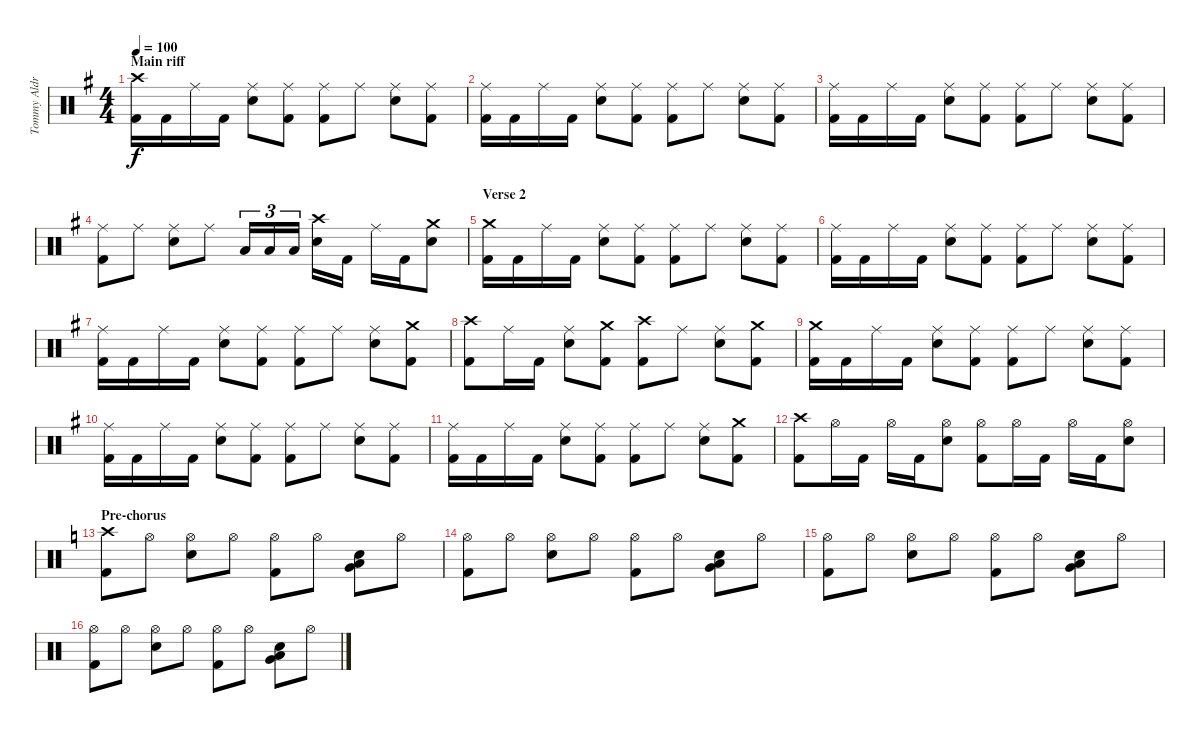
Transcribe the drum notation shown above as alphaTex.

\track ("Tommy Aldridge" "Tommy Aldr") {instrument percussion}
\staff {score}
\articulation defaults
\ts (4 4)
\section ("" "Main riff")
\tempo 100
\clef neutral
\ks eminor
("Crash high (hit)" "Kick (hit) 2").16{dy f} "Kick (hit) 2".16 "Ride (middle)".16 "Kick (hit) 2".16 ("Ride (middle)" "Electric Snare (hit)").8 ("Ride (middle)" "Kick (hit) 2").8 ("Ride (middle)" "Kick (hit) 2").8 "Ride (middle)".8 ("Ride (middle)" "Electric Snare (hit)").8 ("Ride (middle)" "Kick (hit) 2").8 |
("Ride (middle)" "Kick (hit) 2").16 "Kick (hit) 2".16 "Ride (middle)".16 "Kick (hit) 2".16 ("Ride (middle)" "Electric Snare (hit)").8 ("Ride (middle)" "Kick (hit) 2").8 ("Ride (middle)" "Kick (hit) 2").8 "Ride (middle)".8 ("Ride (middle)" "Electric Snare (hit)").8 ("Ride (middle)" "Kick (hit) 2").8 |
("Ride (middle)" "Kick (hit) 2").16 "Kick (hit) 2".16 "Ride (middle)".16 "Kick (hit) 2".16 ("Ride (middle)" "Electric Snare (hit)").8 ("Ride (middle)" "Kick (hit) 2").8 ("Ride (middle)" "Kick (hit) 2").8 "Ride (middle)".8 ("Ride (middle)" "Electric Snare (hit)").8 ("Ride (middle)" "Kick (hit) 2").8 |
("Ride (middle)" "Kick (hit) 2").8 "Ride (middle)".8 ("Ride (middle)" "Electric Snare (hit)").8 "Ride (middle)".8 "Low Floor Tom (hit)".16{tu (3 2)} "Low Floor Tom (hit)".16{tu (3 2)} "Low Floor Tom (hit)".16{tu (3 2)} ("Crash high (hit)" "Electric Snare (hit)").16 "Kick (hit) 2".16 "Ride (middle)".16 "Kick (hit) 2".16 ("Crash medium (hit)" "Electric Snare (hit)").8 |
\section ("" "Verse 2")
("Crash medium (hit)" "Kick (hit) 2").16 "Kick (hit) 2".16 "Ride (middle)".16 "Kick (hit) 2".16 ("Ride (middle)" "Electric Snare (hit)").8 ("Ride (middle)" "Kick (hit) 2").8 ("Ride (middle)" "Kick (hit) 2").8 "Ride (middle)".8 ("Ride (middle)" "Electric Snare (hit)").8 ("Ride (middle)" "Kick (hit) 2").8 |
("Ride (middle)" "Kick (hit) 2").16 "Kick (hit) 2".16 "Ride (middle)".16 "Kick (hit) 2".16 ("Ride (middle)" "Electric Snare (hit)").8 ("Ride (middle)" "Kick (hit) 2").8 ("Ride (middle)" "Kick (hit) 2").8 "Ride (middle)".8 ("Ride (middle)" "Electric Snare (hit)").8 ("Ride (middle)" "Kick (hit) 2").8 |
("Ride (middle)" "Kick (hit) 2").16 "Kick (hit) 2".16 "Ride (middle)".16 "Kick (hit) 2".16 ("Ride (middle)" "Electric Snare (hit)").8 ("Ride (middle)" "Kick (hit) 2").8 ("Ride (middle)" "Kick (hit) 2").8 "Ride (middle)".8 ("Ride (middle)" "Electric Snare (hit)").8 ("Crash medium (hit)" "Kick (hit) 2").8 |
("Crash high (hit)" "Kick (hit) 2").8 "Ride (middle)".16 "Kick (hit) 2".16 ("Ride (middle)" "Electric Snare (hit)").8 ("Crash medium (hit)" "Kick (hit) 2").8 ("Crash high (hit)" "Kick (hit) 2").8 "Ride (middle)".8 ("Ride (middle)" "Electric Snare (hit)").8 ("Crash medium (hit)" "Kick (hit) 2").8 |
("Crash medium (hit)" "Kick (hit) 2").16 "Kick (hit) 2".16 "Ride (middle)".16 "Kick (hit) 2".16 ("Ride (middle)" "Electric Snare (hit)").8 ("Ride (middle)" "Kick (hit) 2").8 ("Ride (middle)" "Kick (hit) 2").8 "Ride (middle)".8 ("Ride (middle)" "Electric Snare (hit)").8 ("Ride (middle)" "Kick (hit) 2").8 |
("Ride (middle)" "Kick (hit) 2").16 "Kick (hit) 2".16 "Ride (middle)".16 "Kick (hit) 2".16 ("Ride (middle)" "Electric Snare (hit)").8 ("Ride (middle)" "Kick (hit) 2").8 ("Ride (middle)" "Kick (hit) 2").8 "Ride (middle)".8 ("Ride (middle)" "Electric Snare (hit)").8 ("Ride (middle)" "Kick (hit) 2").8 |
("Ride (middle)" "Kick (hit) 2").16 "Kick (hit) 2".16 "Ride (middle)".16 "Kick (hit) 2".16 ("Ride (middle)" "Electric Snare (hit)").8 ("Ride (middle)" "Kick (hit) 2").8 ("Ride (middle)" "Kick (hit) 2").8 "Ride (middle)".8 ("Ride (middle)" "Electric Snare (hit)").8 ("Crash medium (hit)" "Kick (hit) 2").8 |
("Crash high (hit)" "Kick (hit) 2").8 "Hi-Hat (open)".16 "Kick (hit) 2".16 "Hi-Hat (open)".16 "Kick (hit) 2".16 ("Hi-Hat (open)" "Electric Snare (hit)").8 ("Hi-Hat (open)" "Kick (hit) 2").8 "Hi-Hat (open)".16 "Kick (hit) 2".16 "Hi-Hat (open)".16 "Kick (hit) 2".16 ("Hi-Hat (open)" "Electric Snare (hit)").8 |
\section ("" "Pre-chorus")
\ks aminor
("Crash high (hit)" "Kick (hit) 2").8 "Hi-Hat (open)".8 ("Hi-Hat (open)" "Electric Snare (hit)").8 "Hi-Hat (open)".8 ("Hi-Hat (open)" "Kick (hit) 2").8 "Hi-Hat (open)".8 ("Very Low Tom (hit)" "Low Floor Tom (hit)" "Electric Snare (hit)").8 "Hi-Hat (open)".8 |
("Hi-Hat (open)" "Kick (hit) 2").8 "Hi-Hat (open)".8 ("Hi-Hat (open)" "Electric Snare (hit)").8 "Hi-Hat (open)".8 ("Hi-Hat (open)" "Kick (hit) 2").8 "Hi-Hat (open)".8 ("Very Low Tom (hit)" "Low Floor Tom (hit)" "Electric Snare (hit)").8 "Hi-Hat (open)".8 |
("Hi-Hat (open)" "Kick (hit) 2").8 "Hi-Hat (open)".8 ("Hi-Hat (open)" "Electric Snare (hit)").8 "Hi-Hat (open)".8 ("Hi-Hat (open)" "Kick (hit) 2").8 "Hi-Hat (open)".8 ("Very Low Tom (hit)" "Low Floor Tom (hit)" "Electric Snare (hit)").8 "Hi-Hat (open)".8 |
("Hi-Hat (open)" "Kick (hit) 2").8 "Hi-Hat (open)".8 ("Hi-Hat (open)" "Electric Snare (hit)").8 "Hi-Hat (open)".8 ("Hi-Hat (open)" "Kick (hit) 2").8 "Hi-Hat (open)".8 ("Very Low Tom (hit)" "Low Floor Tom (hit)" "Electric Snare (hit)").8 "Hi-Hat (open)".8
